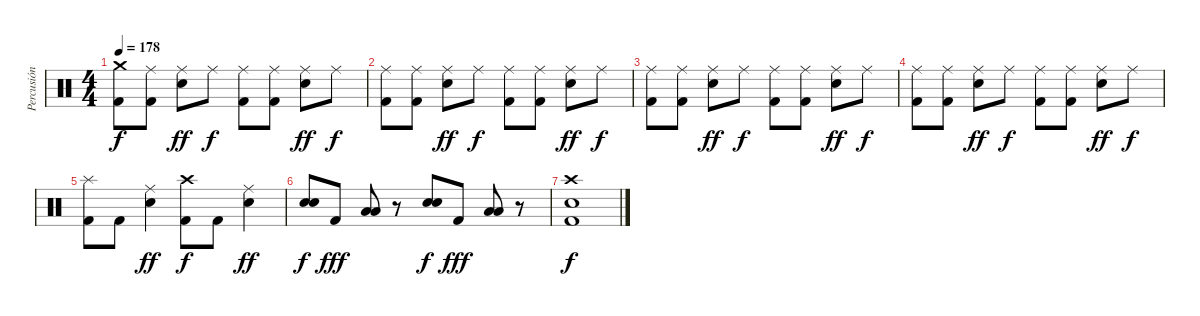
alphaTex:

\track ("Percusión" "Percusión") {instrument percussion}
\staff {score}
\articulation defaults
\ts (4 4)
\tempo 178
\clef neutral
\ks c
("Crash medium (hit)" "Kick (hit) 2").8{dy f} ("Ride (middle)" "Kick (hit) 2").8 ("Ride (middle)" "Snare (hit) 2").8{dy ff} "Ride (middle)".8{dy f} ("Ride (middle)" "Kick (hit) 2").8 ("Ride (middle)" "Kick (hit) 2").8 ("Ride (middle)" "Snare (hit) 2").8{dy ff} "Ride (middle)".8{dy f} |
("Ride (middle)" "Kick (hit) 2").8 ("Ride (middle)" "Kick (hit) 2").8 ("Ride (middle)" "Snare (hit) 2").8{dy ff} "Ride (middle)".8{dy f} ("Ride (middle)" "Kick (hit) 2").8 ("Ride (middle)" "Kick (hit) 2").8 ("Ride (middle)" "Snare (hit) 2").8{dy ff} "Ride (middle)".8{dy f} |
("Ride (middle)" "Kick (hit) 2").8 ("Ride (middle)" "Kick (hit) 2").8 ("Ride (middle)" "Snare (hit) 2").8{dy ff} "Ride (middle)".8{dy f} ("Ride (middle)" "Kick (hit) 2").8 ("Ride (middle)" "Kick (hit) 2").8 ("Ride (middle)" "Snare (hit) 2").8{dy ff} "Ride (middle)".8{dy f} |
("Ride (middle)" "Kick (hit) 2").8 ("Ride (middle)" "Kick (hit) 2").8 ("Ride (middle)" "Snare (hit) 2").8{dy ff} "Ride (middle)".8{dy f} ("Ride (middle)" "Kick (hit) 2").8 ("Ride (middle)" "Kick (hit) 2").8 ("Ride (middle)" "Snare (hit) 2").8{dy ff} "Ride (middle)".8{dy f} |
("Splash (hit)" "Kick (hit) 2").8 "Kick (hit) 2".8 ("Ride (middle)" "Snare (hit) 2").4{dy ff} ("Crash high (hit)" "Kick (hit) 2").8{dy f} "Kick (hit) 2".8 ("Ride (middle)" "Snare (hit) 2").4{dy ff} |
("Snare (hit) 2" "Snare (hit) 2").8{dy f} "Kick (hit) 2".8{dy fff} ("Low Tom (hit)" "Low Tom (hit)").8 r.8 ("Snare (hit) 2" "Snare (hit) 2").8{dy f} "Kick (hit) 2".8{dy fff} ("Low Tom (hit)" "Low Tom (hit)").8 r.8 |
("Kick (hit) 2" "Snare (hit) 2" "Crash high (hit)").1{dy f}
